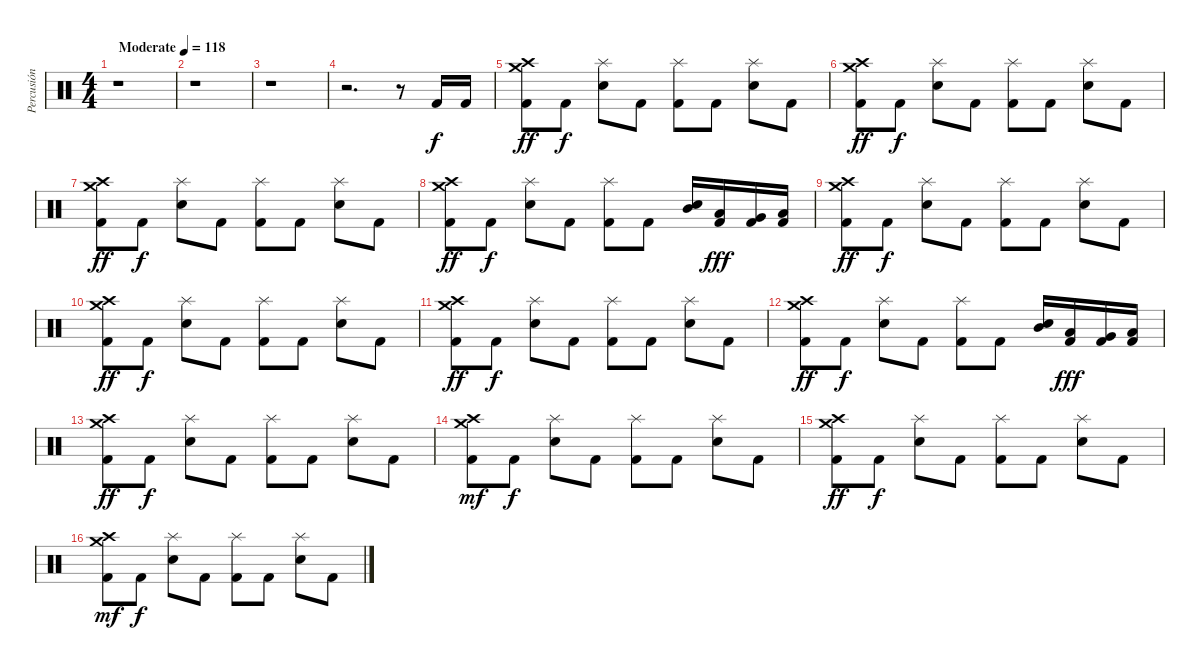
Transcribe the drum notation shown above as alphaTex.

\track ("Percusión" "Percusión") {instrument percussion}
\staff {score}
\articulation defaults
\ts (4 4)
\tempo (118 "Moderate")
\clef neutral
\ks c
r.1{dy f} |
r.1 |
r.1 |
r.2{d} r.8 "Kick (hit) 2".16 "Kick (hit) 2".16 |
("Kick (hit) 2" "Crash medium (hit)" "Crash high (hit)").8{dy ff} "Kick (hit) 2".8{dy f} ("Snare (hit) 2" "Splash (hit)").8 "Kick (hit) 2".8 ("Kick (hit) 2" "Splash (hit)").8 "Kick (hit) 2".8 ("Snare (hit) 2" "Splash (hit)").8 "Kick (hit) 2".8 |
("Kick (hit) 2" "Crash medium (hit)" "Crash high (hit)").8{dy ff} "Kick (hit) 2".8{dy f} ("Snare (hit) 2" "Splash (hit)").8 "Kick (hit) 2".8 ("Kick (hit) 2" "Splash (hit)").8 "Kick (hit) 2".8 ("Snare (hit) 2" "Splash (hit)").8 "Kick (hit) 2".8 |
("Kick (hit) 2" "Crash medium (hit)" "Crash high (hit)").8{dy ff} "Kick (hit) 2".8{dy f} ("Snare (hit) 2" "Splash (hit)").8 "Kick (hit) 2".8 ("Kick (hit) 2" "Splash (hit)").8 "Kick (hit) 2".8 ("Snare (hit) 2" "Splash (hit)").8 "Kick (hit) 2".8 |
("Kick (hit) 2" "Crash medium (hit)" "Crash high (hit)").8{dy ff} "Kick (hit) 2".8{dy f} ("Snare (hit) 2" "Splash (hit)").8 "Kick (hit) 2".8 ("Kick (hit) 2" "Splash (hit)").8 "Kick (hit) 2".8 ("Snare (hit) 2" "Mid Tom (hit)").16 ("Low Tom (hit)" "Kick (hit) 2").16{dy fff} ("Very Low Tom (hit)" "Kick (hit) 2").16 ("Low Floor Tom (hit)" "Kick (hit) 2").16 |
("Kick (hit) 2" "Crash medium (hit)" "Crash high (hit)").8{dy ff} "Kick (hit) 2".8{dy f} ("Snare (hit) 2" "Splash (hit)").8 "Kick (hit) 2".8 ("Kick (hit) 2" "Splash (hit)").8 "Kick (hit) 2".8 ("Snare (hit) 2" "Splash (hit)").8 "Kick (hit) 2".8 |
("Kick (hit) 2" "Crash medium (hit)" "Crash high (hit)").8{dy ff} "Kick (hit) 2".8{dy f} ("Snare (hit) 2" "Splash (hit)").8 "Kick (hit) 2".8 ("Kick (hit) 2" "Splash (hit)").8 "Kick (hit) 2".8 ("Snare (hit) 2" "Splash (hit)").8 "Kick (hit) 2".8 |
("Kick (hit) 2" "Crash medium (hit)" "Crash high (hit)").8{dy ff} "Kick (hit) 2".8{dy f} ("Snare (hit) 2" "Splash (hit)").8 "Kick (hit) 2".8 ("Kick (hit) 2" "Splash (hit)").8 "Kick (hit) 2".8 ("Snare (hit) 2" "Splash (hit)").8 "Kick (hit) 2".8 |
("Kick (hit) 2" "Crash medium (hit)" "Crash high (hit)").8{dy ff} "Kick (hit) 2".8{dy f} ("Snare (hit) 2" "Splash (hit)").8 "Kick (hit) 2".8 ("Kick (hit) 2" "Splash (hit)").8 "Kick (hit) 2".8 ("Snare (hit) 2" "Mid Tom (hit)").16 ("Low Tom (hit)" "Kick (hit) 2").16{dy fff} ("Very Low Tom (hit)" "Kick (hit) 2").16 ("Low Floor Tom (hit)" "Kick (hit) 2").16 |
("Kick (hit) 2" "Crash medium (hit)" "Crash high (hit)").8{dy ff} "Kick (hit) 2".8{dy f} ("Snare (hit) 2" "Splash (hit)").8 "Kick (hit) 2".8 ("Kick (hit) 2" "Splash (hit)").8 "Kick (hit) 2".8 ("Snare (hit) 2" "Splash (hit)").8 "Kick (hit) 2".8 |
("Kick (hit) 2" "Crash medium (hit)" "Crash high (hit)").8{dy mf} "Kick (hit) 2".8{dy f} ("Snare (hit) 2" "Splash (hit)").8 "Kick (hit) 2".8 ("Kick (hit) 2" "Splash (hit)").8 "Kick (hit) 2".8 ("Snare (hit) 2" "Splash (hit)").8 "Kick (hit) 2".8 |
("Kick (hit) 2" "Crash medium (hit)" "Crash high (hit)").8{dy ff} "Kick (hit) 2".8{dy f} ("Snare (hit) 2" "Splash (hit)").8 "Kick (hit) 2".8 ("Kick (hit) 2" "Splash (hit)").8 "Kick (hit) 2".8 ("Snare (hit) 2" "Splash (hit)").8 "Kick (hit) 2".8 |
("Kick (hit) 2" "Crash medium (hit)" "Crash high (hit)").8{dy mf} "Kick (hit) 2".8{dy f} ("Snare (hit) 2" "Splash (hit)").8 "Kick (hit) 2".8 ("Kick (hit) 2" "Splash (hit)").8 "Kick (hit) 2".8 ("Snare (hit) 2" "Splash (hit)").8 "Kick (hit) 2".8
